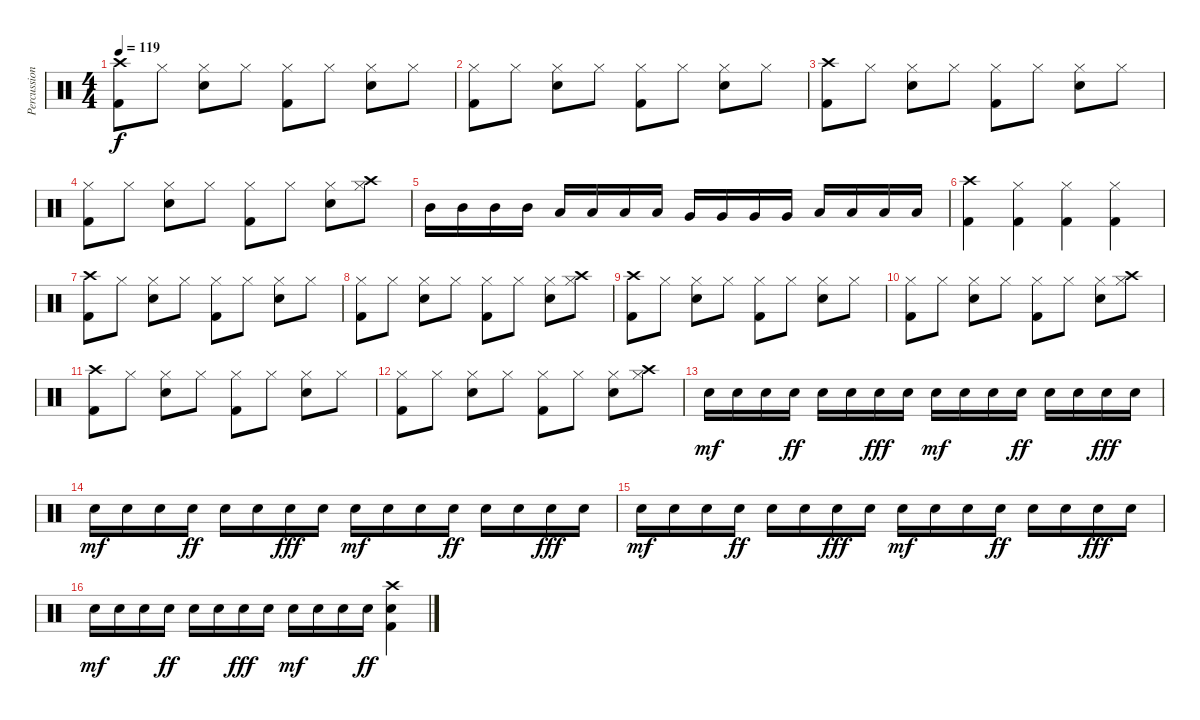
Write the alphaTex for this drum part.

\track ("Percussion" "Percussion") {instrument percussion}
\staff {score}
\articulation defaults
\ts (4 4)
\tempo 119
\clef neutral
\ks c
("Crash high (hit)" "Kick (hit) 2").8{dy f} "Hi-Hat (closed)".8 ("Hi-Hat (closed)" "Electric Snare (hit)").8 "Hi-Hat (closed)".8 ("Hi-Hat (closed)" "Kick (hit) 2").8 "Hi-Hat (closed)".8 ("Hi-Hat (closed)" "Electric Snare (hit)").8 "Hi-Hat (closed)".8 |
("Hi-Hat (closed)" "Kick (hit) 2").8 "Hi-Hat (closed)".8 ("Hi-Hat (closed)" "Electric Snare (hit)").8 "Hi-Hat (closed)".8 ("Hi-Hat (closed)" "Kick (hit) 2").8 "Hi-Hat (closed)".8 ("Hi-Hat (closed)" "Electric Snare (hit)").8 "Hi-Hat (closed)".8 |
("Crash high (hit)" "Kick (hit) 2").8 "Hi-Hat (closed)".8 ("Hi-Hat (closed)" "Electric Snare (hit)").8 "Hi-Hat (closed)".8 ("Hi-Hat (closed)" "Kick (hit) 2").8 "Hi-Hat (closed)".8 ("Hi-Hat (closed)" "Electric Snare (hit)").8 "Hi-Hat (closed)".8 |
("Hi-Hat (closed)" "Kick (hit) 2").8 "Hi-Hat (closed)".8 ("Hi-Hat (closed)" "Electric Snare (hit)").8 "Hi-Hat (closed)".8 ("Hi-Hat (closed)" "Kick (hit) 2").8 "Hi-Hat (closed)".8 ("Hi-Hat (closed)" "Electric Snare (hit)").8 ("Hi-Hat (closed)" "Crash high (hit)").8 |
"Mid Tom (hit)".16 "Mid Tom (hit)".16 "Mid Tom (hit)".16 "Mid Tom (hit)".16 "Low Tom (hit)".16 "Low Tom (hit)".16 "Low Tom (hit)".16 "Low Tom (hit)".16 "Very Low Tom (hit)".16 "Very Low Tom (hit)".16 "Very Low Tom (hit)".16 "Very Low Tom (hit)".16 "Low Floor Tom (hit)".16 "Low Floor Tom (hit)".16 "Low Floor Tom (hit)".16 "Low Floor Tom (hit)".16 |
("Crash high (hit)" "Kick (hit) 2").4 ("Hi-Hat (closed)" "Kick (hit) 2").4 ("Hi-Hat (closed)" "Kick (hit) 2").4 ("Hi-Hat (closed)" "Kick (hit) 2").4 |
("Crash high (hit)" "Kick (hit) 2").8 "Hi-Hat (closed)".8 ("Hi-Hat (closed)" "Electric Snare (hit)").8 "Hi-Hat (closed)".8 ("Hi-Hat (closed)" "Kick (hit) 2").8 "Hi-Hat (closed)".8 ("Hi-Hat (closed)" "Electric Snare (hit)").8 "Hi-Hat (closed)".8 |
("Hi-Hat (closed)" "Kick (hit) 2").8 "Hi-Hat (closed)".8 ("Hi-Hat (closed)" "Electric Snare (hit)").8 "Hi-Hat (closed)".8 ("Hi-Hat (closed)" "Kick (hit) 2").8 "Hi-Hat (closed)".8 ("Hi-Hat (closed)" "Electric Snare (hit)").8 ("Hi-Hat (closed)" "Crash high (hit)").8 |
("Crash high (hit)" "Kick (hit) 2").8 "Hi-Hat (closed)".8 ("Hi-Hat (closed)" "Electric Snare (hit)").8 "Hi-Hat (closed)".8 ("Hi-Hat (closed)" "Kick (hit) 2").8 "Hi-Hat (closed)".8 ("Hi-Hat (closed)" "Electric Snare (hit)").8 "Hi-Hat (closed)".8 |
("Hi-Hat (closed)" "Kick (hit) 2").8 "Hi-Hat (closed)".8 ("Hi-Hat (closed)" "Electric Snare (hit)").8 "Hi-Hat (closed)".8 ("Hi-Hat (closed)" "Kick (hit) 2").8 "Hi-Hat (closed)".8 ("Hi-Hat (closed)" "Electric Snare (hit)").8 ("Hi-Hat (closed)" "Crash high (hit)").8 |
("Crash high (hit)" "Kick (hit) 2").8 "Hi-Hat (closed)".8 ("Hi-Hat (closed)" "Electric Snare (hit)").8 "Hi-Hat (closed)".8 ("Hi-Hat (closed)" "Kick (hit) 2").8 "Hi-Hat (closed)".8 ("Hi-Hat (closed)" "Electric Snare (hit)").8 "Hi-Hat (closed)".8 |
("Hi-Hat (closed)" "Kick (hit) 2").8 "Hi-Hat (closed)".8 ("Hi-Hat (closed)" "Electric Snare (hit)").8 "Hi-Hat (closed)".8 ("Hi-Hat (closed)" "Kick (hit) 2").8 "Hi-Hat (closed)".8 ("Hi-Hat (closed)" "Electric Snare (hit)").8 ("Hi-Hat (closed)" "Crash high (hit)").8 |
"Snare (hit) 2".16{dy mf} "Snare (hit) 2".16 "Snare (hit) 2".16 "Snare (hit) 2".16{dy ff} "Snare (hit) 2".16 "Snare (hit) 2".16 "Snare (hit) 2".16{dy fff} "Snare (hit) 2".16 "Snare (hit) 2".16{dy mf} "Snare (hit) 2".16 "Snare (hit) 2".16 "Snare (hit) 2".16{dy ff} "Snare (hit) 2".16 "Snare (hit) 2".16 "Snare (hit) 2".16{dy fff} "Snare (hit) 2".16 |
"Snare (hit) 2".16{dy mf} "Snare (hit) 2".16 "Snare (hit) 2".16 "Snare (hit) 2".16{dy ff} "Snare (hit) 2".16 "Snare (hit) 2".16 "Snare (hit) 2".16{dy fff} "Snare (hit) 2".16 "Snare (hit) 2".16{dy mf} "Snare (hit) 2".16 "Snare (hit) 2".16 "Snare (hit) 2".16{dy ff} "Snare (hit) 2".16 "Snare (hit) 2".16 "Snare (hit) 2".16{dy fff} "Snare (hit) 2".16 |
"Snare (hit) 2".16{dy mf} "Snare (hit) 2".16 "Snare (hit) 2".16 "Snare (hit) 2".16{dy ff} "Snare (hit) 2".16 "Snare (hit) 2".16 "Snare (hit) 2".16{dy fff} "Snare (hit) 2".16 "Snare (hit) 2".16{dy mf} "Snare (hit) 2".16 "Snare (hit) 2".16 "Snare (hit) 2".16{dy ff} "Snare (hit) 2".16 "Snare (hit) 2".16 "Snare (hit) 2".16{dy fff} "Snare (hit) 2".16 |
"Snare (hit) 2".16{dy mf} "Snare (hit) 2".16 "Snare (hit) 2".16 "Snare (hit) 2".16{dy ff} "Snare (hit) 2".16 "Snare (hit) 2".16 "Snare (hit) 2".16{dy fff} "Snare (hit) 2".16 "Snare (hit) 2".16{dy mf} "Snare (hit) 2".16 "Snare (hit) 2".16 "Snare (hit) 2".16{dy ff} ("Crash high (hit)" "Snare (hit) 2" "Kick (hit) 2").4
